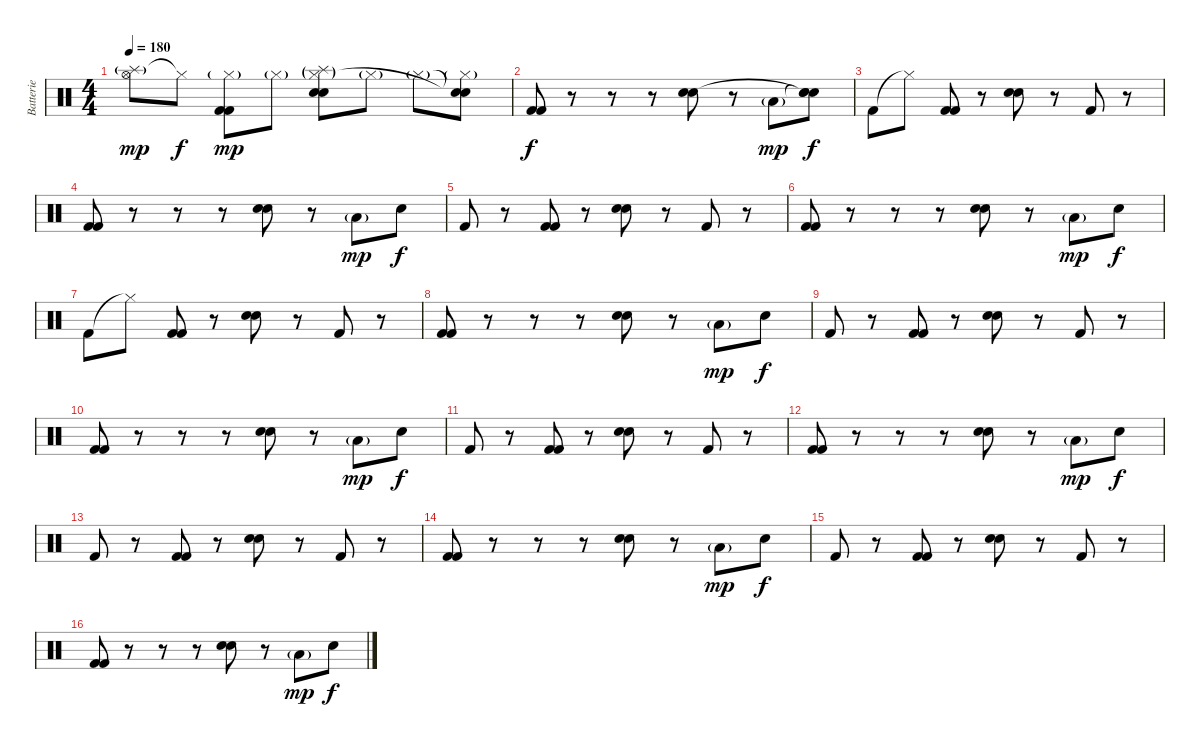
\track ("Batterie" "Batterie") {instrument percussion}
\staff {score}
\articulation defaults
\ts (4 4)
\tempo 180
\clef neutral
\ks c
("Splash (hit)"{g} "Hi-Hat (open)").8{dy mp} "Hi-Hat (closed)"{t}.8{dy f} ("Hi-Hat (closed)"{g} "Kick (hit) 2" "Kick (hit) 2").8{dy mp} "Hi-Hat (closed)"{g}.8 ("Splash (hit)"{g} "Hi-Hat (closed)"{g} "Electric Snare (hit)" "Snare (hit) 2").8 "Hi-Hat (closed)"{g}.8 "Hi-Hat (closed)"{g}.8 ("Snare (hit)"{t} "Snare (hit)"{t} "Hi-Hat (closed)"{g}).8 |
("Kick (hit) 2" "Kick (hit) 2").8{dy f} r.8 r.8 r.8 ("Electric Snare (hit)" "Snare (hit) 2").8 r.8 "Low Tom (hit)"{g}.8{dy mp} ("Snare (hit)"{t} "Snare (hit)"{t} "Electric Snare (hit)").8{dy f} |
"Kick (hit) 2".8 "Hi-Hat (closed)"{t}.8 ("Kick (hit) 2" "Kick (hit) 2").8 r.8 ("Electric Snare (hit)" "Snare (hit) 2").8 r.8 "Kick (hit) 2".8 r.8 |
("Kick (hit) 2" "Kick (hit) 2").8 r.8 r.8 r.8 ("Electric Snare (hit)" "Snare (hit) 2").8 r.8 "Low Tom (hit)"{g}.8{dy mp} "Electric Snare (hit)".8{dy f} |
"Kick (hit) 2".8 r.8 ("Kick (hit) 2" "Kick (hit) 2").8 r.8 ("Electric Snare (hit)" "Snare (hit) 2").8 r.8 "Kick (hit) 2".8 r.8 |
("Kick (hit) 2" "Kick (hit) 2").8 r.8 r.8 r.8 ("Electric Snare (hit)" "Snare (hit) 2").8 r.8 "Low Tom (hit)"{g}.8{dy mp} "Electric Snare (hit)".8{dy f} |
"Kick (hit) 2".8 "Hi-Hat (closed)"{t}.8 ("Kick (hit) 2" "Kick (hit) 2").8 r.8 ("Electric Snare (hit)" "Snare (hit) 2").8 r.8 "Kick (hit) 2".8 r.8 |
("Kick (hit) 2" "Kick (hit) 2").8 r.8 r.8 r.8 ("Electric Snare (hit)" "Snare (hit) 2").8 r.8 "Low Tom (hit)"{g}.8{dy mp} "Electric Snare (hit)".8{dy f} |
"Kick (hit) 2".8 r.8 ("Kick (hit) 2" "Kick (hit) 2").8 r.8 ("Electric Snare (hit)" "Snare (hit) 2").8 r.8 "Kick (hit) 2".8 r.8 |
("Kick (hit) 2" "Kick (hit) 2").8 r.8 r.8 r.8 ("Electric Snare (hit)" "Snare (hit) 2").8 r.8 "Low Tom (hit)"{g}.8{dy mp} "Electric Snare (hit)".8{dy f} |
"Kick (hit) 2".8 r.8 ("Kick (hit) 2" "Kick (hit) 2").8 r.8 ("Electric Snare (hit)" "Snare (hit) 2").8 r.8 "Kick (hit) 2".8 r.8 |
("Kick (hit) 2" "Kick (hit) 2").8 r.8 r.8 r.8 ("Electric Snare (hit)" "Snare (hit) 2").8 r.8 "Low Tom (hit)"{g}.8{dy mp} "Electric Snare (hit)".8{dy f} |
"Kick (hit) 2".8 r.8 ("Kick (hit) 2" "Kick (hit) 2").8 r.8 ("Electric Snare (hit)" "Snare (hit) 2").8 r.8 "Kick (hit) 2".8 r.8 |
("Kick (hit) 2" "Kick (hit) 2").8 r.8 r.8 r.8 ("Electric Snare (hit)" "Snare (hit) 2").8 r.8 "Low Tom (hit)"{g}.8{dy mp} "Electric Snare (hit)".8{dy f} |
"Kick (hit) 2".8 r.8 ("Kick (hit) 2" "Kick (hit) 2").8 r.8 ("Electric Snare (hit)" "Snare (hit) 2").8 r.8 "Kick (hit) 2".8 r.8 |
("Kick (hit) 2" "Kick (hit) 2").8 r.8 r.8 r.8 ("Electric Snare (hit)" "Snare (hit) 2").8 r.8 "Low Tom (hit)"{g}.8{dy mp} "Electric Snare (hit)".8{dy f}
